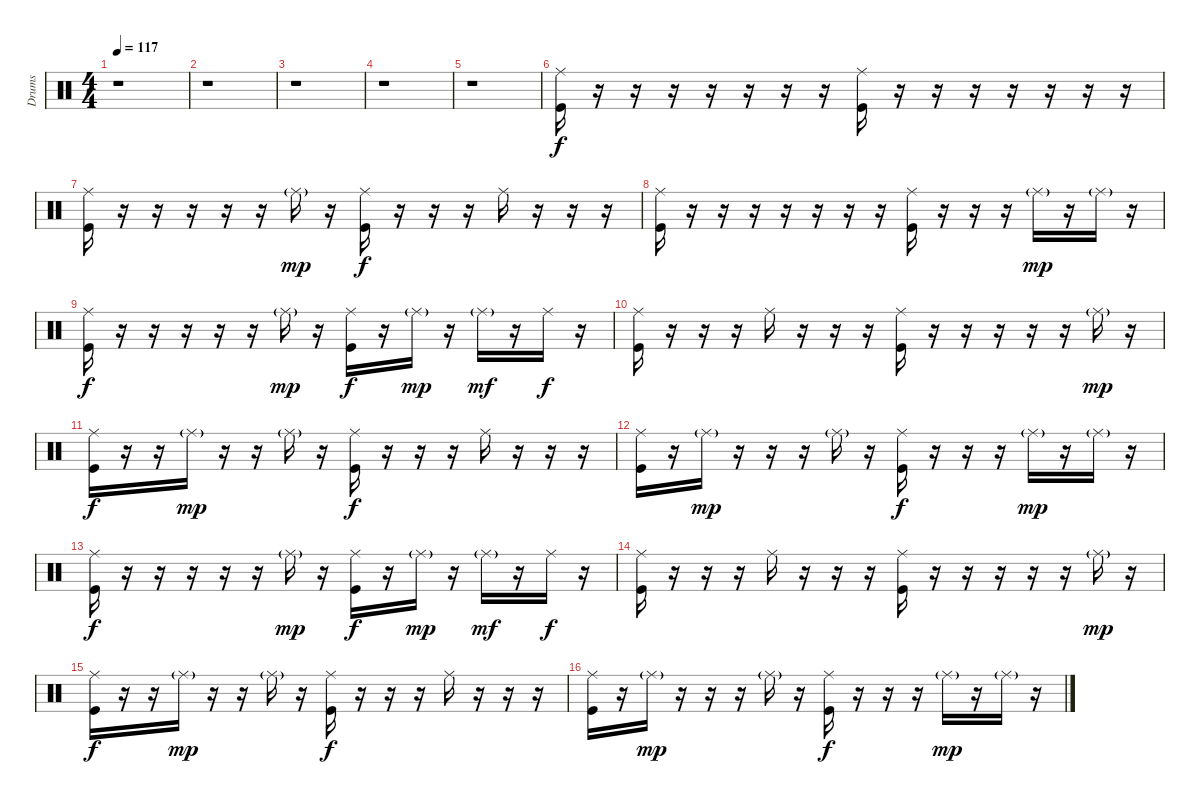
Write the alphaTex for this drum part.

\track ("Drums" "Drums") {instrument percussion}
\staff {score}
\articulation defaults
\ts (4 4)
\tempo 117
\clef neutral
\ks c
r.1{dy f} |
r.1 |
r.1 |
r.1 |
r.1 |
\section ("" "")
("Ride (middle)" "Kick (hit)").16 r.16 r.16 r.16 r.16 r.16 r.16 r.16 ("Ride (middle)" "Kick (hit)").16 r.16 r.16 r.16 r.16 r.16 r.16 r.16 |
("Ride (middle)" "Kick (hit)").16 r.16 r.16 r.16 r.16 r.16 "Ride (middle)"{g}.16{dy mp} r.16 ("Ride (middle)" "Kick (hit)").16{dy f} r.16 r.16 r.16 "Ride (middle)".16 r.16 r.16 r.16 |
("Ride (middle)" "Kick (hit)").16 r.16 r.16 r.16 r.16 r.16 r.16 r.16 ("Ride (middle)" "Kick (hit)").16 r.16 r.16 r.16 "Ride (middle)"{g}.16{dy mp} r.16 "Ride (middle)"{g}.16 r.16 |
("Ride (middle)" "Kick (hit)").16{dy f} r.16 r.16 r.16 r.16 r.16 "Ride (middle)"{g}.16{dy mp} r.16 ("Ride (middle)" "Kick (hit)").16{dy f} r.16 "Ride (middle)"{g}.16{dy mp} r.16 "Ride (middle)"{g}.16{dy mf} r.16 "Ride (middle)".16{dy f} r.16 |
("Ride (middle)" "Kick (hit)").16 r.16 r.16 r.16 "Ride (middle)".16 r.16 r.16 r.16 ("Ride (middle)" "Kick (hit)").16 r.16 r.16 r.16 r.16 r.16 "Ride (middle)"{g}.16{dy mp} r.16 |
("Ride (middle)" "Kick (hit)").16{dy f} r.16 r.16 "Ride (middle)"{g}.16{dy mp} r.16 r.16 "Ride (middle)"{g}.16 r.16 ("Ride (middle)" "Kick (hit)").16{dy f} r.16 r.16 r.16 "Ride (middle)".16 r.16 r.16 r.16 |
("Ride (middle)" "Kick (hit)").16 r.16 "Ride (middle)"{g}.16{dy mp} r.16 r.16 r.16 "Ride (middle)"{g}.16 r.16 ("Ride (middle)" "Kick (hit)").16{dy f} r.16 r.16 r.16 "Ride (middle)"{g}.16{dy mp} r.16 "Ride (middle)"{g}.16 r.16 |
("Ride (middle)" "Kick (hit)").16{dy f} r.16 r.16 r.16 r.16 r.16 "Ride (middle)"{g}.16{dy mp} r.16 ("Ride (middle)" "Kick (hit)").16{dy f} r.16 "Ride (middle)"{g}.16{dy mp} r.16 "Ride (middle)"{g}.16{dy mf} r.16 "Ride (middle)".16{dy f} r.16 |
("Ride (middle)" "Kick (hit)").16 r.16 r.16 r.16 "Ride (middle)".16 r.16 r.16 r.16 ("Ride (middle)" "Kick (hit)").16 r.16 r.16 r.16 r.16 r.16 "Ride (middle)"{g}.16{dy mp} r.16 |
("Ride (middle)" "Kick (hit)").16{dy f} r.16 r.16 "Ride (middle)"{g}.16{dy mp} r.16 r.16 "Ride (middle)"{g}.16 r.16 ("Ride (middle)" "Kick (hit)").16{dy f} r.16 r.16 r.16 "Ride (middle)".16 r.16 r.16 r.16 |
("Ride (middle)" "Kick (hit)").16 r.16 "Ride (middle)"{g}.16{dy mp} r.16 r.16 r.16 "Ride (middle)"{g}.16 r.16 ("Ride (middle)" "Kick (hit)").16{dy f} r.16 r.16 r.16 "Ride (middle)"{g}.16{dy mp} r.16 "Ride (middle)"{g}.16 r.16
